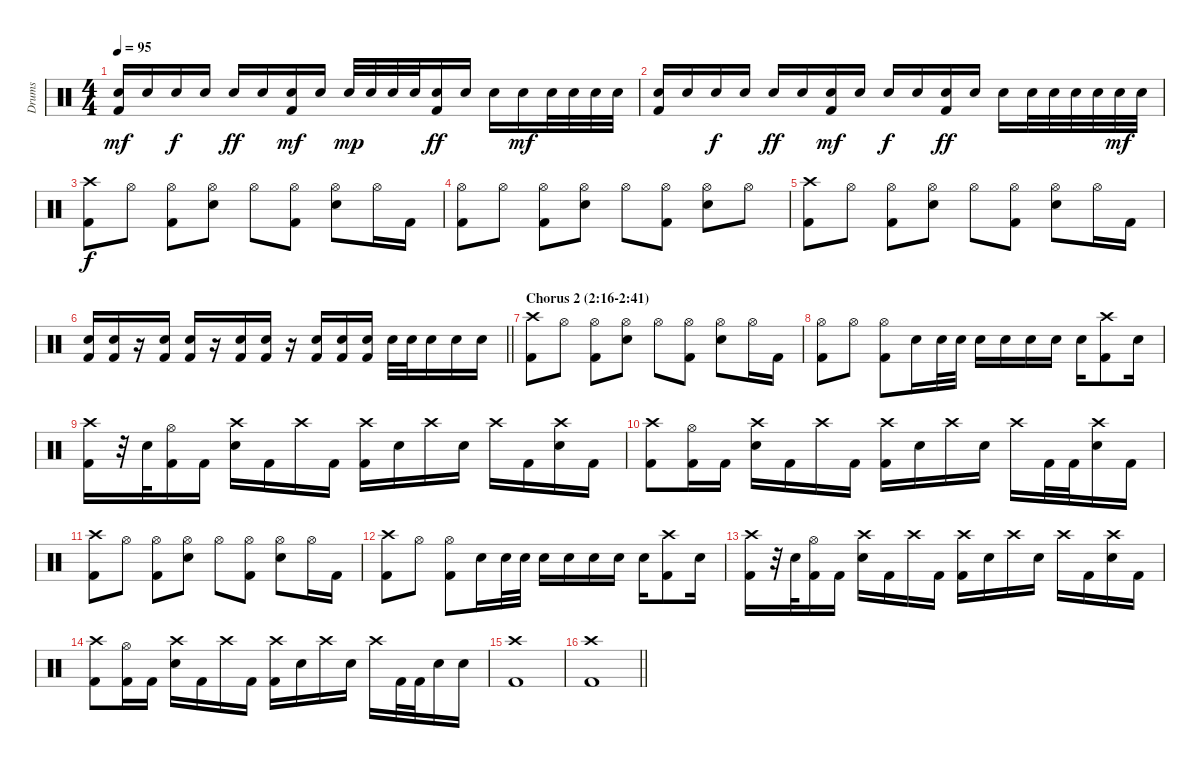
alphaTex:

\track ("Drums" "Drums") {instrument percussion}
\staff {score}
\articulation defaults
\ts (4 4)
\tempo 95
\clef neutral
\ks c
("Snare (hit) 2" "Kick (hit) 2").16{dy mf} "Snare (hit) 2".16 "Snare (hit) 2".16{dy f} "Snare (hit) 2".16 "Snare (hit) 2".16{dy ff} "Snare (hit) 2".16 ("Snare (hit) 2" "Kick (hit) 2").16{dy mf} "Snare (hit) 2".16 "Snare (hit) 2".32{dy mp} "Snare (hit) 2".32 "Snare (hit) 2".32 "Snare (hit) 2".32 ("Snare (hit) 2" "Kick (hit) 2").16{dy ff} "Snare (hit) 2".16 "Snare (hit) 2".16 "Snare (hit) 2".16{dy mf} "Snare (hit) 2".32 "Snare (hit) 2".32 "Snare (hit) 2".32 "Snare (hit) 2".32 |
("Snare (hit) 2" "Kick (hit) 2").16 "Snare (hit) 2".16 "Snare (hit) 2".16{dy f} "Snare (hit) 2".16 "Snare (hit) 2".16{dy ff} "Snare (hit) 2".16 ("Snare (hit) 2" "Kick (hit) 2").16{dy mf} "Snare (hit) 2".16 "Snare (hit) 2".16{dy f} "Snare (hit) 2".16 ("Snare (hit) 2" "Kick (hit) 2").16{dy ff} "Snare (hit) 2".16 "Snare (hit) 2".16 "Snare (hit) 2".32 "Snare (hit) 2".32 "Snare (hit) 2".32 "Snare (hit) 2".32 "Snare (hit) 2".32{dy mf} "Snare (hit) 2".32 |
("Kick (hit) 2" "Crash high (hit)").8{dy f} "Hi-Hat (open)".8 ("Hi-Hat (open)" "Kick (hit) 2").8 ("Hi-Hat (open)" "Snare (hit) 2").8 "Hi-Hat (open)".8 ("Hi-Hat (open)" "Kick (hit) 2").8 ("Hi-Hat (open)" "Snare (hit) 2").8 "Hi-Hat (open)".16 "Kick (hit) 2".16 |
("Kick (hit) 2" "Hi-Hat (open)").8 "Hi-Hat (open)".8 ("Hi-Hat (open)" "Kick (hit) 2").8 ("Hi-Hat (open)" "Snare (hit) 2").8 "Hi-Hat (open)".8 ("Hi-Hat (open)" "Kick (hit) 2").8 ("Hi-Hat (open)" "Snare (hit) 2").8 "Hi-Hat (open)".8 |
("Kick (hit) 2" "Crash high (hit)").8 "Hi-Hat (open)".8 ("Hi-Hat (open)" "Kick (hit) 2").8 ("Hi-Hat (open)" "Snare (hit) 2").8 "Hi-Hat (open)".8 ("Hi-Hat (open)" "Kick (hit) 2").8 ("Hi-Hat (open)" "Snare (hit) 2").8 "Hi-Hat (open)".16 "Kick (hit) 2".16 |
\barLineRight lightlight
("Kick (hit) 2" "Snare (hit) 2").16 ("Kick (hit) 2" "Snare (hit) 2").16 r.16 ("Kick (hit) 2" "Snare (hit) 2").16 ("Kick (hit) 2" "Snare (hit) 2").16 r.16 ("Kick (hit) 2" "Snare (hit) 2").16 ("Kick (hit) 2" "Snare (hit) 2").16 r.16 ("Kick (hit) 2" "Snare (hit) 2").16 ("Kick (hit) 2" "Snare (hit) 2").16 ("Kick (hit) 2" "Snare (hit) 2").16 "Snare (hit) 2".32 "Snare (hit) 2".32 "Snare (hit) 2".16 "Snare (hit) 2".16 "Snare (hit) 2".16 |
\section ("" "Chorus 2 (2:16-2:41)")
("Crash high (hit)" "Kick (hit) 2").8 "Hi-Hat (open)".8 ("Hi-Hat (open)" "Kick (hit) 2").8 ("Hi-Hat (open)" "Snare (hit) 2").8 "Hi-Hat (open)".8 ("Hi-Hat (open)" "Kick (hit) 2").8 ("Hi-Hat (open)" "Snare (hit) 2").8 "Hi-Hat (open)".16 "Kick (hit) 2".16 |
("Hi-Hat (open)" "Kick (hit) 2").8 "Hi-Hat (open)".8 ("Hi-Hat (open)" "Kick (hit) 2").8 "Snare (hit) 2".16 "Snare (hit) 2".32 "Snare (hit) 2".32 "Snare (hit) 2".16 "Snare (hit) 2".16 "Snare (hit) 2".16 "Snare (hit) 2".16 "Snare (hit) 2".16 ("Crash high (hit)" "Kick (hit) 2").8 "Snare (hit) 2".16 |
("Crash high (hit)" "Kick (hit) 2").16 r.32 "Snare (hit) 2".32 ("Hi-Hat (open)" "Kick (hit) 2").16 "Kick (hit) 2".16 ("Crash high (hit)" "Snare (hit) 2").16 "Kick (hit) 2".16 "Crash high (hit)".16 "Kick (hit) 2".16 ("Crash high (hit)" "Kick (hit) 2").16 "Snare (hit) 2".16 "Crash high (hit)".16 "Snare (hit) 2".16 "Crash high (hit)".16 "Kick (hit) 2".16 ("Crash high (hit)" "Snare (hit) 2").16 "Kick (hit) 2".16 |
("Crash high (hit)" "Kick (hit) 2").8 ("Hi-Hat (open)" "Kick (hit) 2").16 "Kick (hit) 2".16 ("Crash high (hit)" "Snare (hit) 2").16 "Kick (hit) 2".16 "Crash high (hit)".16 "Kick (hit) 2".16 ("Crash high (hit)" "Kick (hit) 2").16 "Snare (hit) 2".16 "Crash high (hit)".16 "Snare (hit) 2".16 "Crash high (hit)".16 "Kick (hit) 2".32 "Kick (hit) 2".32 ("Crash high (hit)" "Snare (hit) 2").16 "Kick (hit) 2".16 |
("Crash high (hit)" "Kick (hit) 2").8 "Hi-Hat (open)".8 ("Hi-Hat (open)" "Kick (hit) 2").8 ("Hi-Hat (open)" "Snare (hit) 2").8 "Hi-Hat (open)".8 ("Hi-Hat (open)" "Kick (hit) 2").8 ("Hi-Hat (open)" "Snare (hit) 2").8 "Hi-Hat (open)".16 "Kick (hit) 2".16 |
("Crash high (hit)" "Kick (hit) 2").8 "Hi-Hat (open)".8 ("Hi-Hat (open)" "Kick (hit) 2").8 "Snare (hit) 2".16 "Snare (hit) 2".32 "Snare (hit) 2".32 "Snare (hit) 2".16 "Snare (hit) 2".16 "Snare (hit) 2".16 "Snare (hit) 2".16 "Snare (hit) 2".16 ("Crash high (hit)" "Kick (hit) 2").8 "Snare (hit) 2".16 |
("Crash high (hit)" "Kick (hit) 2").16 r.32 "Snare (hit) 2".32 ("Hi-Hat (open)" "Kick (hit) 2").16 "Kick (hit) 2".16 ("Crash high (hit)" "Snare (hit) 2").16 "Kick (hit) 2".16 "Crash high (hit)".16 "Kick (hit) 2".16 ("Crash high (hit)" "Kick (hit) 2").16 "Snare (hit) 2".16 "Crash high (hit)".16 "Snare (hit) 2".16 "Crash high (hit)".16 "Kick (hit) 2".16 ("Crash high (hit)" "Snare (hit) 2").16 "Kick (hit) 2".16 |
("Crash high (hit)" "Kick (hit) 2").8 ("Hi-Hat (open)" "Kick (hit) 2").16 "Kick (hit) 2".16 ("Crash high (hit)" "Snare (hit) 2").16 "Kick (hit) 2".16 "Crash high (hit)".16 "Kick (hit) 2".16 ("Crash high (hit)" "Kick (hit) 2").16 "Snare (hit) 2".16 "Crash high (hit)".16 "Snare (hit) 2".16 "Crash high (hit)".16 "Kick (hit) 2".32 "Kick (hit) 2".32 "Snare (hit) 2".16 "Snare (hit) 2".16 |
("Kick (hit) 2" "Crash high (hit)").1 |
\barLineRight lightlight
("Kick (hit) 2" "Crash high (hit)").1
